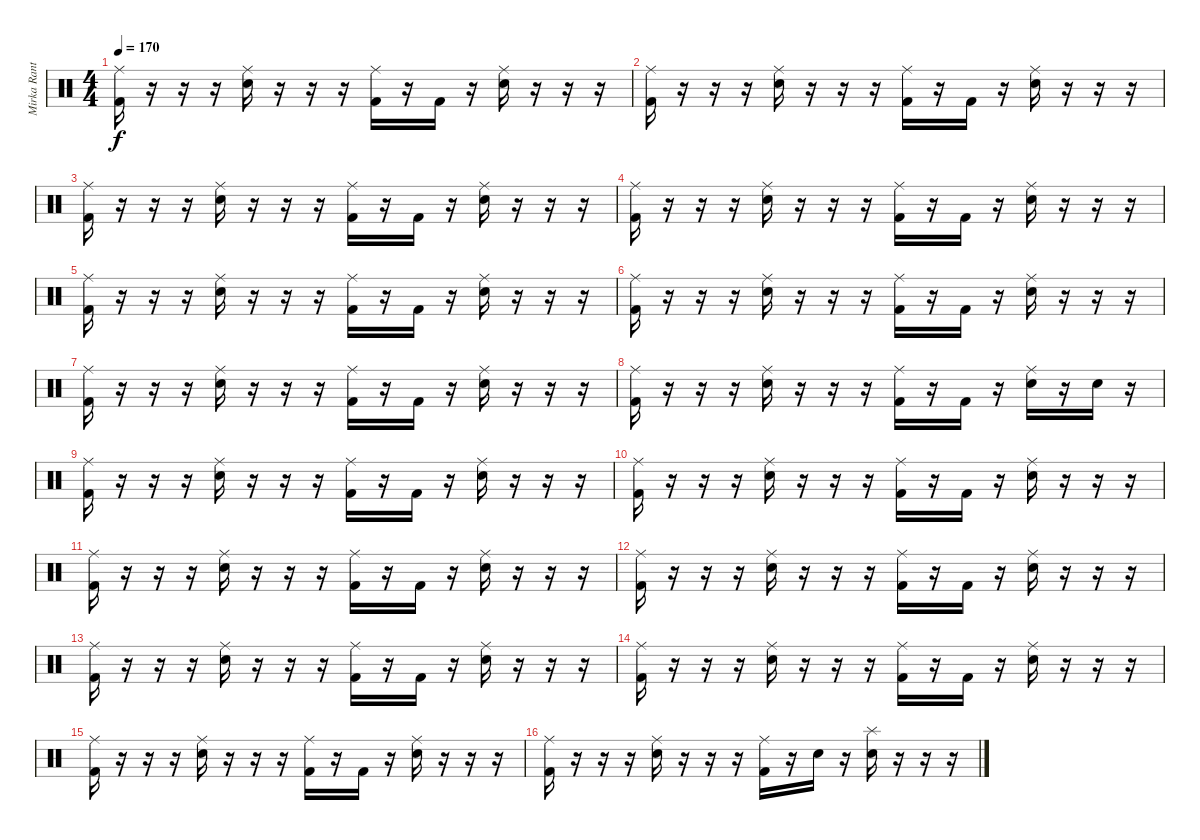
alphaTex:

\track ("Mirka Rantanen" "Mirka Rant") {instrument percussion}
\staff {score}
\articulation defaults
\ts (4 4)
\tempo 170
\clef neutral
\ks c
("Ride (middle)" "Kick (hit) 2").16{dy f} r.16 r.16 r.16 ("Ride (middle)" "Snare (hit) 2").16 r.16 r.16 r.16 ("Ride (middle)" "Kick (hit) 2").16 r.16 "Kick (hit) 2".16 r.16 ("Ride (middle)" "Snare (hit) 2").16 r.16 r.16 r.16 |
("Ride (middle)" "Kick (hit) 2").16 r.16 r.16 r.16 ("Ride (middle)" "Snare (hit) 2").16 r.16 r.16 r.16 ("Ride (middle)" "Kick (hit) 2").16 r.16 "Kick (hit) 2".16 r.16 ("Ride (middle)" "Snare (hit) 2").16 r.16 r.16 r.16 |
("Ride (middle)" "Kick (hit) 2").16 r.16 r.16 r.16 ("Ride (middle)" "Snare (hit) 2").16 r.16 r.16 r.16 ("Ride (middle)" "Kick (hit) 2").16 r.16 "Kick (hit) 2".16 r.16 ("Ride (middle)" "Snare (hit) 2").16 r.16 r.16 r.16 |
("Ride (middle)" "Kick (hit) 2").16 r.16 r.16 r.16 ("Ride (middle)" "Snare (hit) 2").16 r.16 r.16 r.16 ("Ride (middle)" "Kick (hit) 2").16 r.16 "Kick (hit) 2".16 r.16 ("Ride (middle)" "Snare (hit) 2").16 r.16 r.16 r.16 |
("Ride (middle)" "Kick (hit) 2").16 r.16 r.16 r.16 ("Ride (middle)" "Snare (hit) 2").16 r.16 r.16 r.16 ("Ride (middle)" "Kick (hit) 2").16 r.16 "Kick (hit) 2".16 r.16 ("Ride (middle)" "Snare (hit) 2").16 r.16 r.16 r.16 |
("Ride (middle)" "Kick (hit) 2").16 r.16 r.16 r.16 ("Ride (middle)" "Snare (hit) 2").16 r.16 r.16 r.16 ("Ride (middle)" "Kick (hit) 2").16 r.16 "Kick (hit) 2".16 r.16 ("Ride (middle)" "Snare (hit) 2").16 r.16 r.16 r.16 |
("Ride (middle)" "Kick (hit) 2").16 r.16 r.16 r.16 ("Ride (middle)" "Snare (hit) 2").16 r.16 r.16 r.16 ("Ride (middle)" "Kick (hit) 2").16 r.16 "Kick (hit) 2".16 r.16 ("Ride (middle)" "Snare (hit) 2").16 r.16 r.16 r.16 |
("Ride (middle)" "Kick (hit) 2").16 r.16 r.16 r.16 ("Ride (middle)" "Snare (hit) 2").16 r.16 r.16 r.16 ("Ride (middle)" "Kick (hit) 2").16 r.16 "Kick (hit) 2".16 r.16 ("Ride (middle)" "Snare (hit) 2").16 r.16 "Snare (hit) 2".16 r.16 |
("Ride (middle)" "Kick (hit) 2").16 r.16 r.16 r.16 ("Ride (middle)" "Snare (hit) 2").16 r.16 r.16 r.16 ("Ride (middle)" "Kick (hit) 2").16 r.16 "Kick (hit) 2".16 r.16 ("Ride (middle)" "Snare (hit) 2").16 r.16 r.16 r.16 |
("Ride (middle)" "Kick (hit) 2").16 r.16 r.16 r.16 ("Ride (middle)" "Snare (hit) 2").16 r.16 r.16 r.16 ("Ride (middle)" "Kick (hit) 2").16 r.16 "Kick (hit) 2".16 r.16 ("Ride (middle)" "Snare (hit) 2").16 r.16 r.16 r.16 |
("Ride (middle)" "Kick (hit) 2").16 r.16 r.16 r.16 ("Ride (middle)" "Snare (hit) 2").16 r.16 r.16 r.16 ("Ride (middle)" "Kick (hit) 2").16 r.16 "Kick (hit) 2".16 r.16 ("Ride (middle)" "Snare (hit) 2").16 r.16 r.16 r.16 |
("Ride (middle)" "Kick (hit) 2").16 r.16 r.16 r.16 ("Ride (middle)" "Snare (hit) 2").16 r.16 r.16 r.16 ("Ride (middle)" "Kick (hit) 2").16 r.16 "Kick (hit) 2".16 r.16 ("Ride (middle)" "Snare (hit) 2").16 r.16 r.16 r.16 |
("Ride (middle)" "Kick (hit) 2").16 r.16 r.16 r.16 ("Ride (middle)" "Snare (hit) 2").16 r.16 r.16 r.16 ("Ride (middle)" "Kick (hit) 2").16 r.16 "Kick (hit) 2".16 r.16 ("Ride (middle)" "Snare (hit) 2").16 r.16 r.16 r.16 |
("Ride (middle)" "Kick (hit) 2").16 r.16 r.16 r.16 ("Ride (middle)" "Snare (hit) 2").16 r.16 r.16 r.16 ("Ride (middle)" "Kick (hit) 2").16 r.16 "Kick (hit) 2".16 r.16 ("Ride (middle)" "Snare (hit) 2").16 r.16 r.16 r.16 |
("Ride (middle)" "Kick (hit) 2").16 r.16 r.16 r.16 ("Ride (middle)" "Snare (hit) 2").16 r.16 r.16 r.16 ("Ride (middle)" "Kick (hit) 2").16 r.16 "Kick (hit) 2".16 r.16 ("Ride (middle)" "Snare (hit) 2").16 r.16 r.16 r.16 |
("Ride (middle)" "Kick (hit) 2").16 r.16 r.16 r.16 ("Ride (middle)" "Snare (hit) 2").16 r.16 r.16 r.16 ("Ride (middle)" "Kick (hit) 2").16 r.16 "Snare (hit) 2".16 r.16 ("Splash (hit)" "Snare (hit) 2").16 r.16 r.16 r.16
